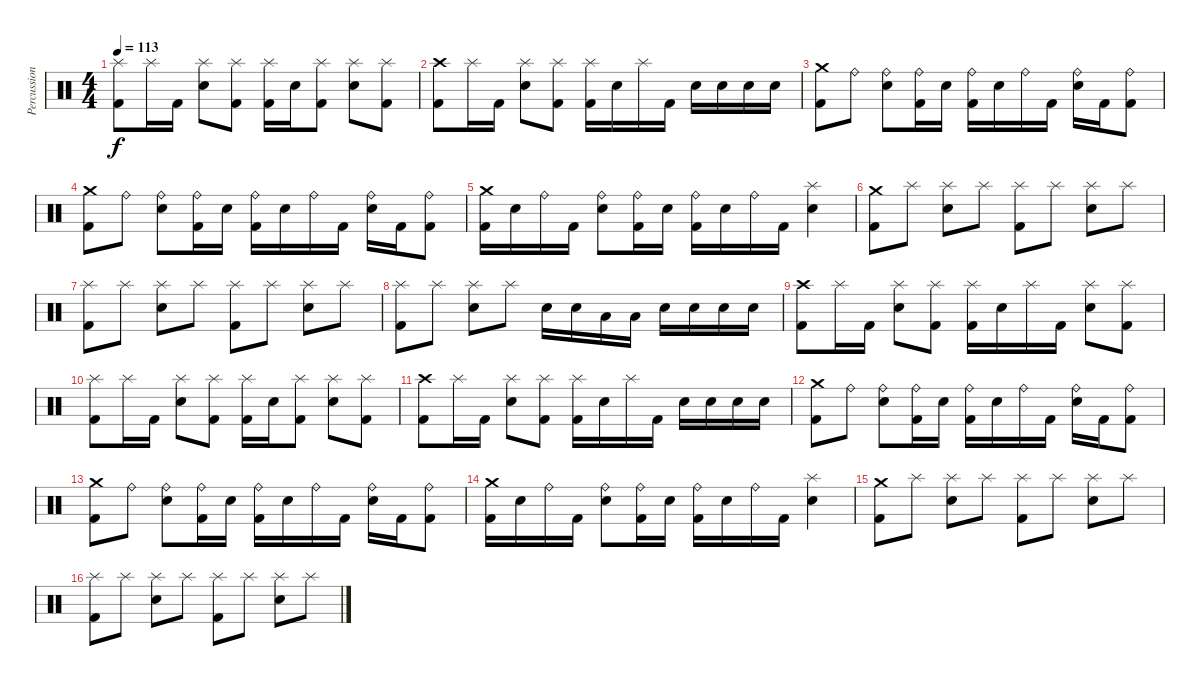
\track ("Percussion" "Percussion") {instrument percussion}
\staff {score}
\articulation defaults
\ts (4 4)
\tempo 113
\clef neutral
\ks c
("Splash (hit)" "Kick (hit) 2").8{dy f} "Splash (hit)".16 "Kick (hit) 2".16 ("Splash (hit)" "Electric Snare (hit)").8 ("Splash (hit)" "Kick (hit) 2").8 ("Splash (hit)" "Kick (hit) 2").16 "Electric Snare (hit)".16 ("Splash (hit)" "Kick (hit) 2").8 ("Splash (hit)" "Electric Snare (hit)").8 ("Splash (hit)" "Kick (hit) 2").8 |
("Crash high (hit)" "Kick (hit) 2").8 "Splash (hit)".16 "Kick (hit) 2".16 ("Splash (hit)" "Electric Snare (hit)").8 ("Splash (hit)" "Kick (hit) 2").8 ("Splash (hit)" "Kick (hit) 2").16 "Electric Snare (hit)".16 "Splash (hit)".16 "Kick (hit) 2".16 "Electric Snare (hit)".16 "Electric Snare (hit)".16 "Electric Snare (hit)".16 "Electric Snare (hit)".16 |
("Crash medium (hit)" "Kick (hit) 2").8 "Ride (bell)".8 ("Ride (bell)" "Electric Snare (hit)").8 ("Ride (bell)" "Kick (hit) 2").16 "Electric Snare (hit)".16 ("Ride (bell)" "Kick (hit) 2").16 "Electric Snare (hit)".16 "Ride (bell)".16 "Kick (hit) 2".16 ("Ride (bell)" "Electric Snare (hit)").16 "Kick (hit) 2".16 ("Ride (bell)" "Kick (hit) 2").8 |
("Crash medium (hit)" "Kick (hit) 2").8 "Ride (bell)".8 ("Ride (bell)" "Electric Snare (hit)").8 ("Ride (bell)" "Kick (hit) 2").16 "Electric Snare (hit)".16 ("Ride (bell)" "Kick (hit) 2").16 "Electric Snare (hit)".16 "Ride (bell)".16 "Kick (hit) 2".16 ("Ride (bell)" "Electric Snare (hit)").16 "Kick (hit) 2".16 ("Ride (bell)" "Kick (hit) 2").8 |
("Crash medium (hit)" "Kick (hit) 2").16 "Electric Snare (hit)".16 "Ride (bell)".16 "Kick (hit) 2".16 ("Ride (bell)" "Electric Snare (hit)").8 ("Ride (bell)" "Kick (hit) 2").16 "Electric Snare (hit)".16 ("Ride (bell)" "Kick (hit) 2").16 "Electric Snare (hit)".16 "Ride (bell)".16 "Kick (hit) 2".16 ("Splash (hit)" "Electric Snare (hit)").4 |
("Crash medium (hit)" "Kick (hit) 2").8 "Splash (hit)".8 ("Splash (hit)" "Electric Snare (hit)").8 "Splash (hit)".8 ("Splash (hit)" "Kick (hit) 2").8 "Splash (hit)".8 ("Splash (hit)" "Electric Snare (hit)").8 "Splash (hit)".8 |
("Splash (hit)" "Kick (hit) 2").8 "Splash (hit)".8 ("Splash (hit)" "Electric Snare (hit)").8 "Splash (hit)".8 ("Splash (hit)" "Kick (hit) 2").8 "Splash (hit)".8 ("Splash (hit)" "Electric Snare (hit)").8 "Splash (hit)".8 |
("Splash (hit)" "Kick (hit) 2").8 "Splash (hit)".8 ("Splash (hit)" "Electric Snare (hit)").8 "Splash (hit)".8 "Electric Snare (hit)".16 "Electric Snare (hit)".16 "Low Floor Tom (hit)".16 "Low Floor Tom (hit)".16 "Electric Snare (hit)".16 "Electric Snare (hit)".16 "Electric Snare (hit)".16 "Electric Snare (hit)".16 |
("Crash high (hit)" "Kick (hit) 2").8 "Splash (hit)".16 "Kick (hit) 2".16 ("Splash (hit)" "Electric Snare (hit)").8 ("Splash (hit)" "Kick (hit) 2").8 ("Splash (hit)" "Kick (hit) 2").16 "Electric Snare (hit)".16 "Splash (hit)".16 "Kick (hit) 2".16 ("Splash (hit)" "Electric Snare (hit)").8 ("Splash (hit)" "Kick (hit) 2").8 |
("Splash (hit)" "Kick (hit) 2").8 "Splash (hit)".16 "Kick (hit) 2".16 ("Splash (hit)" "Electric Snare (hit)").8 ("Splash (hit)" "Kick (hit) 2").8 ("Splash (hit)" "Kick (hit) 2").16 "Electric Snare (hit)".16 ("Splash (hit)" "Kick (hit) 2").8 ("Splash (hit)" "Electric Snare (hit)").8 ("Splash (hit)" "Kick (hit) 2").8 |
("Crash high (hit)" "Kick (hit) 2").8 "Splash (hit)".16 "Kick (hit) 2".16 ("Splash (hit)" "Electric Snare (hit)").8 ("Splash (hit)" "Kick (hit) 2").8 ("Splash (hit)" "Kick (hit) 2").16 "Electric Snare (hit)".16 "Splash (hit)".16 "Kick (hit) 2".16 "Electric Snare (hit)".16 "Electric Snare (hit)".16 "Electric Snare (hit)".16 "Electric Snare (hit)".16 |
("Crash medium (hit)" "Kick (hit) 2").8 "Ride (bell)".8 ("Ride (bell)" "Electric Snare (hit)").8 ("Ride (bell)" "Kick (hit) 2").16 "Electric Snare (hit)".16 ("Ride (bell)" "Kick (hit) 2").16 "Electric Snare (hit)".16 "Ride (bell)".16 "Kick (hit) 2".16 ("Ride (bell)" "Electric Snare (hit)").16 "Kick (hit) 2".16 ("Ride (bell)" "Kick (hit) 2").8 |
("Crash medium (hit)" "Kick (hit) 2").8 "Ride (bell)".8 ("Ride (bell)" "Electric Snare (hit)").8 ("Ride (bell)" "Kick (hit) 2").16 "Electric Snare (hit)".16 ("Ride (bell)" "Kick (hit) 2").16 "Electric Snare (hit)".16 "Ride (bell)".16 "Kick (hit) 2".16 ("Ride (bell)" "Electric Snare (hit)").16 "Kick (hit) 2".16 ("Ride (bell)" "Kick (hit) 2").8 |
("Crash medium (hit)" "Kick (hit) 2").16 "Electric Snare (hit)".16 "Ride (bell)".16 "Kick (hit) 2".16 ("Ride (bell)" "Electric Snare (hit)").8 ("Ride (bell)" "Kick (hit) 2").16 "Electric Snare (hit)".16 ("Ride (bell)" "Kick (hit) 2").16 "Electric Snare (hit)".16 "Ride (bell)".16 "Kick (hit) 2".16 ("Splash (hit)" "Electric Snare (hit)").4 |
("Crash medium (hit)" "Kick (hit) 2").8 "Splash (hit)".8 ("Splash (hit)" "Electric Snare (hit)").8 "Splash (hit)".8 ("Splash (hit)" "Kick (hit) 2").8 "Splash (hit)".8 ("Splash (hit)" "Electric Snare (hit)").8 "Splash (hit)".8 |
("Splash (hit)" "Kick (hit) 2").8 "Splash (hit)".8 ("Splash (hit)" "Electric Snare (hit)").8 "Splash (hit)".8 ("Splash (hit)" "Kick (hit) 2").8 "Splash (hit)".8 ("Splash (hit)" "Electric Snare (hit)").8 "Splash (hit)".8
